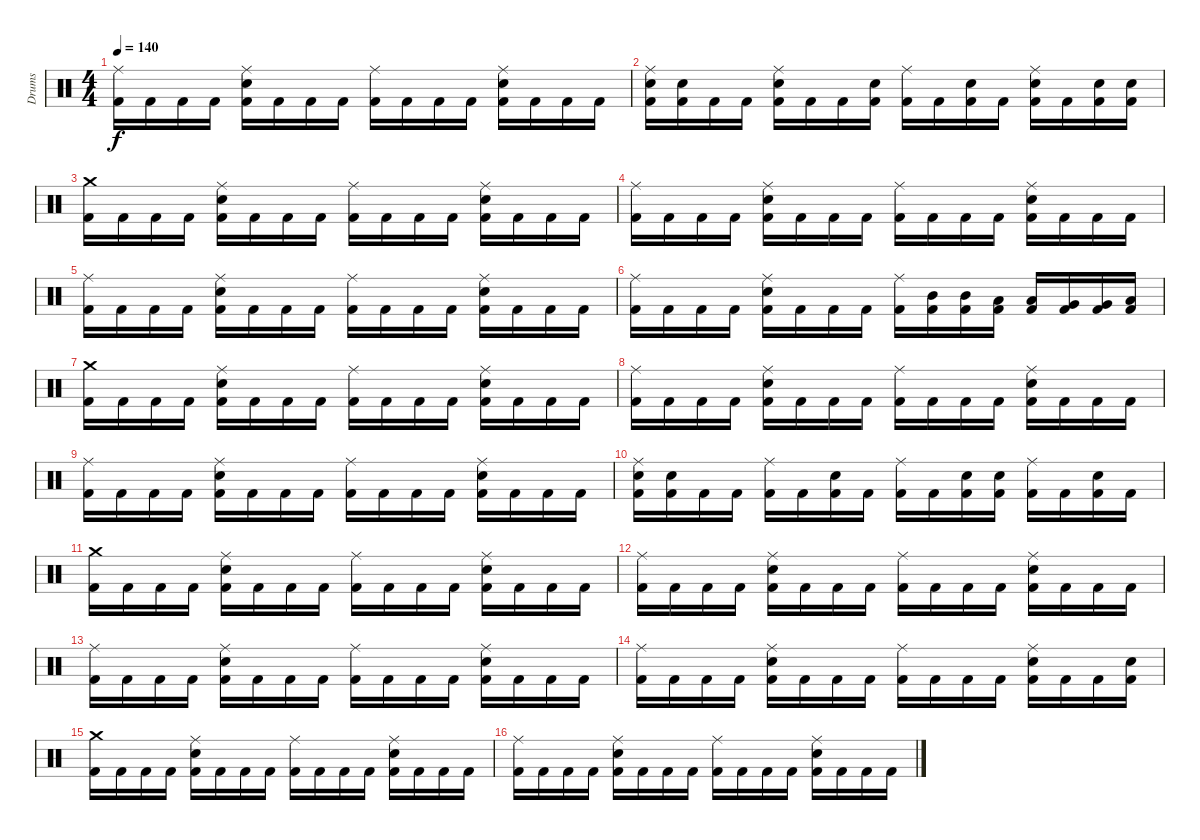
\track ("Drums" "Drums") {instrument percussion}
\staff {score}
\articulation defaults
\ts (4 4)
\tempo 140
\clef neutral
\ks c
("Ride (middle)" "Kick (hit) 2").16{dy f} "Kick (hit) 2".16 "Kick (hit) 2".16 "Kick (hit) 2".16 ("Ride (middle)" "Electric Snare (hit)" "Kick (hit) 2").16 "Kick (hit) 2".16 "Kick (hit) 2".16 "Kick (hit) 2".16 ("Ride (middle)" "Kick (hit) 2").16 "Kick (hit) 2".16 "Kick (hit) 2".16 "Kick (hit) 2".16 ("Ride (middle)" "Electric Snare (hit)" "Kick (hit) 2").16 "Kick (hit) 2".16 "Kick (hit) 2".16 "Kick (hit) 2".16 |
("Ride (middle)" "Electric Snare (hit)" "Kick (hit) 2").16 ("Electric Snare (hit)" "Kick (hit) 2").16 "Kick (hit) 2".16 "Kick (hit) 2".16 ("Ride (middle)" "Electric Snare (hit)" "Kick (hit) 2").16 "Kick (hit) 2".16 "Kick (hit) 2".16 ("Electric Snare (hit)" "Kick (hit) 2").16 ("Ride (middle)" "Kick (hit) 2").16 "Kick (hit) 2".16 ("Electric Snare (hit)" "Kick (hit) 2").16 "Kick (hit) 2".16 ("Ride (middle)" "Electric Snare (hit)" "Kick (hit) 2").16 "Kick (hit) 2".16 ("Electric Snare (hit)" "Kick (hit) 2").16 ("Electric Snare (hit)" "Kick (hit) 2").16 |
("Crash medium (hit)" "Kick (hit) 2").16 "Kick (hit) 2".16 "Kick (hit) 2".16 "Kick (hit) 2".16 ("Ride (middle)" "Electric Snare (hit)" "Kick (hit) 2").16 "Kick (hit) 2".16 "Kick (hit) 2".16 "Kick (hit) 2".16 ("Ride (middle)" "Kick (hit) 2").16 "Kick (hit) 2".16 "Kick (hit) 2".16 "Kick (hit) 2".16 ("Ride (middle)" "Electric Snare (hit)" "Kick (hit) 2").16 "Kick (hit) 2".16 "Kick (hit) 2".16 "Kick (hit) 2".16 |
("Ride (middle)" "Kick (hit) 2").16 "Kick (hit) 2".16 "Kick (hit) 2".16 "Kick (hit) 2".16 ("Ride (middle)" "Electric Snare (hit)" "Kick (hit) 2").16 "Kick (hit) 2".16 "Kick (hit) 2".16 "Kick (hit) 2".16 ("Ride (middle)" "Kick (hit) 2").16 "Kick (hit) 2".16 "Kick (hit) 2".16 "Kick (hit) 2".16 ("Ride (middle)" "Electric Snare (hit)" "Kick (hit) 2").16 "Kick (hit) 2".16 "Kick (hit) 2".16 "Kick (hit) 2".16 |
("Ride (middle)" "Kick (hit) 2").16 "Kick (hit) 2".16 "Kick (hit) 2".16 "Kick (hit) 2".16 ("Ride (middle)" "Electric Snare (hit)" "Kick (hit) 2").16 "Kick (hit) 2".16 "Kick (hit) 2".16 "Kick (hit) 2".16 ("Ride (middle)" "Kick (hit) 2").16 "Kick (hit) 2".16 "Kick (hit) 2".16 "Kick (hit) 2".16 ("Ride (middle)" "Electric Snare (hit)" "Kick (hit) 2").16 "Kick (hit) 2".16 "Kick (hit) 2".16 "Kick (hit) 2".16 |
("Ride (middle)" "Kick (hit) 2").16 "Kick (hit) 2".16 "Kick (hit) 2".16 "Kick (hit) 2".16 ("Ride (middle)" "Electric Snare (hit)" "Kick (hit) 2").16 "Kick (hit) 2".16 "Kick (hit) 2".16 "Kick (hit) 2".16 ("Ride (middle)" "Kick (hit) 2").16 ("Mid Tom (hit)" "Kick (hit) 2").16 ("Mid Tom (hit)" "Kick (hit) 2").16 ("Low Tom (hit)" "Kick (hit) 2").16 ("Low Tom (hit)" "Kick (hit) 2").16 ("Very Low Tom (hit)" "Kick (hit) 2").16 ("Very Low Tom (hit)" "Kick (hit) 2").16 ("Low Floor Tom (hit)" "Kick (hit) 2").16 |
("Crash medium (hit)" "Kick (hit) 2").16 "Kick (hit) 2".16 "Kick (hit) 2".16 "Kick (hit) 2".16 ("Ride (middle)" "Electric Snare (hit)" "Kick (hit) 2").16 "Kick (hit) 2".16 "Kick (hit) 2".16 "Kick (hit) 2".16 ("Ride (middle)" "Kick (hit) 2").16 "Kick (hit) 2".16 "Kick (hit) 2".16 "Kick (hit) 2".16 ("Ride (middle)" "Electric Snare (hit)" "Kick (hit) 2").16 "Kick (hit) 2".16 "Kick (hit) 2".16 "Kick (hit) 2".16 |
("Ride (middle)" "Kick (hit) 2").16 "Kick (hit) 2".16 "Kick (hit) 2".16 "Kick (hit) 2".16 ("Ride (middle)" "Electric Snare (hit)" "Kick (hit) 2").16 "Kick (hit) 2".16 "Kick (hit) 2".16 "Kick (hit) 2".16 ("Ride (middle)" "Kick (hit) 2").16 "Kick (hit) 2".16 "Kick (hit) 2".16 "Kick (hit) 2".16 ("Ride (middle)" "Electric Snare (hit)" "Kick (hit) 2").16 "Kick (hit) 2".16 "Kick (hit) 2".16 "Kick (hit) 2".16 |
("Ride (middle)" "Kick (hit) 2").16 "Kick (hit) 2".16 "Kick (hit) 2".16 "Kick (hit) 2".16 ("Ride (middle)" "Electric Snare (hit)" "Kick (hit) 2").16 "Kick (hit) 2".16 "Kick (hit) 2".16 "Kick (hit) 2".16 ("Ride (middle)" "Kick (hit) 2").16 "Kick (hit) 2".16 "Kick (hit) 2".16 "Kick (hit) 2".16 ("Ride (middle)" "Electric Snare (hit)" "Kick (hit) 2").16 "Kick (hit) 2".16 "Kick (hit) 2".16 "Kick (hit) 2".16 |
("Ride (middle)" "Electric Snare (hit)" "Kick (hit) 2").16 ("Electric Snare (hit)" "Kick (hit) 2").16 "Kick (hit) 2".16 "Kick (hit) 2".16 ("Ride (middle)" "Kick (hit) 2").16 "Kick (hit) 2".16 ("Electric Snare (hit)" "Kick (hit) 2").16 "Kick (hit) 2".16 ("Ride (middle)" "Kick (hit) 2").16 "Kick (hit) 2".16 ("Electric Snare (hit)" "Kick (hit) 2").16 ("Electric Snare (hit)" "Kick (hit) 2").16 ("Ride (middle)" "Kick (hit) 2").16 "Kick (hit) 2".16 ("Electric Snare (hit)" "Kick (hit) 2").16 "Kick (hit) 2".16 |
\section ("" "")
("Crash medium (hit)" "Kick (hit) 2").16 "Kick (hit) 2".16 "Kick (hit) 2".16 "Kick (hit) 2".16 ("Ride (middle)" "Electric Snare (hit)" "Kick (hit) 2").16 "Kick (hit) 2".16 "Kick (hit) 2".16 "Kick (hit) 2".16 ("Ride (middle)" "Kick (hit) 2").16 "Kick (hit) 2".16 "Kick (hit) 2".16 "Kick (hit) 2".16 ("Ride (middle)" "Electric Snare (hit)" "Kick (hit) 2").16 "Kick (hit) 2".16 "Kick (hit) 2".16 "Kick (hit) 2".16 |
("Ride (middle)" "Kick (hit) 2").16 "Kick (hit) 2".16 "Kick (hit) 2".16 "Kick (hit) 2".16 ("Ride (middle)" "Electric Snare (hit)" "Kick (hit) 2").16 "Kick (hit) 2".16 "Kick (hit) 2".16 "Kick (hit) 2".16 ("Ride (middle)" "Kick (hit) 2").16 "Kick (hit) 2".16 "Kick (hit) 2".16 "Kick (hit) 2".16 ("Ride (middle)" "Electric Snare (hit)" "Kick (hit) 2").16 "Kick (hit) 2".16 "Kick (hit) 2".16 "Kick (hit) 2".16 |
("Ride (middle)" "Kick (hit) 2").16 "Kick (hit) 2".16 "Kick (hit) 2".16 "Kick (hit) 2".16 ("Ride (middle)" "Electric Snare (hit)" "Kick (hit) 2").16 "Kick (hit) 2".16 "Kick (hit) 2".16 "Kick (hit) 2".16 ("Ride (middle)" "Kick (hit) 2").16 "Kick (hit) 2".16 "Kick (hit) 2".16 "Kick (hit) 2".16 ("Ride (middle)" "Electric Snare (hit)" "Kick (hit) 2").16 "Kick (hit) 2".16 "Kick (hit) 2".16 "Kick (hit) 2".16 |
("Ride (middle)" "Kick (hit) 2").16 "Kick (hit) 2".16 "Kick (hit) 2".16 "Kick (hit) 2".16 ("Ride (middle)" "Electric Snare (hit)" "Kick (hit) 2").16 "Kick (hit) 2".16 "Kick (hit) 2".16 "Kick (hit) 2".16 ("Ride (middle)" "Kick (hit) 2").16 "Kick (hit) 2".16 "Kick (hit) 2".16 "Kick (hit) 2".16 ("Ride (middle)" "Electric Snare (hit)" "Kick (hit) 2").16 "Kick (hit) 2".16 "Kick (hit) 2".16 ("Electric Snare (hit)" "Kick (hit) 2").16 |
("Crash medium (hit)" "Kick (hit) 2").16 "Kick (hit) 2".16 "Kick (hit) 2".16 "Kick (hit) 2".16 ("Ride (middle)" "Electric Snare (hit)" "Kick (hit) 2").16 "Kick (hit) 2".16 "Kick (hit) 2".16 "Kick (hit) 2".16 ("Ride (middle)" "Kick (hit) 2").16 "Kick (hit) 2".16 "Kick (hit) 2".16 "Kick (hit) 2".16 ("Ride (middle)" "Electric Snare (hit)" "Kick (hit) 2").16 "Kick (hit) 2".16 "Kick (hit) 2".16 "Kick (hit) 2".16 |
("Ride (middle)" "Kick (hit) 2").16 "Kick (hit) 2".16 "Kick (hit) 2".16 "Kick (hit) 2".16 ("Ride (middle)" "Electric Snare (hit)" "Kick (hit) 2").16 "Kick (hit) 2".16 "Kick (hit) 2".16 "Kick (hit) 2".16 ("Ride (middle)" "Kick (hit) 2").16 "Kick (hit) 2".16 "Kick (hit) 2".16 "Kick (hit) 2".16 ("Ride (middle)" "Electric Snare (hit)" "Kick (hit) 2").16 "Kick (hit) 2".16 "Kick (hit) 2".16 "Kick (hit) 2".16
